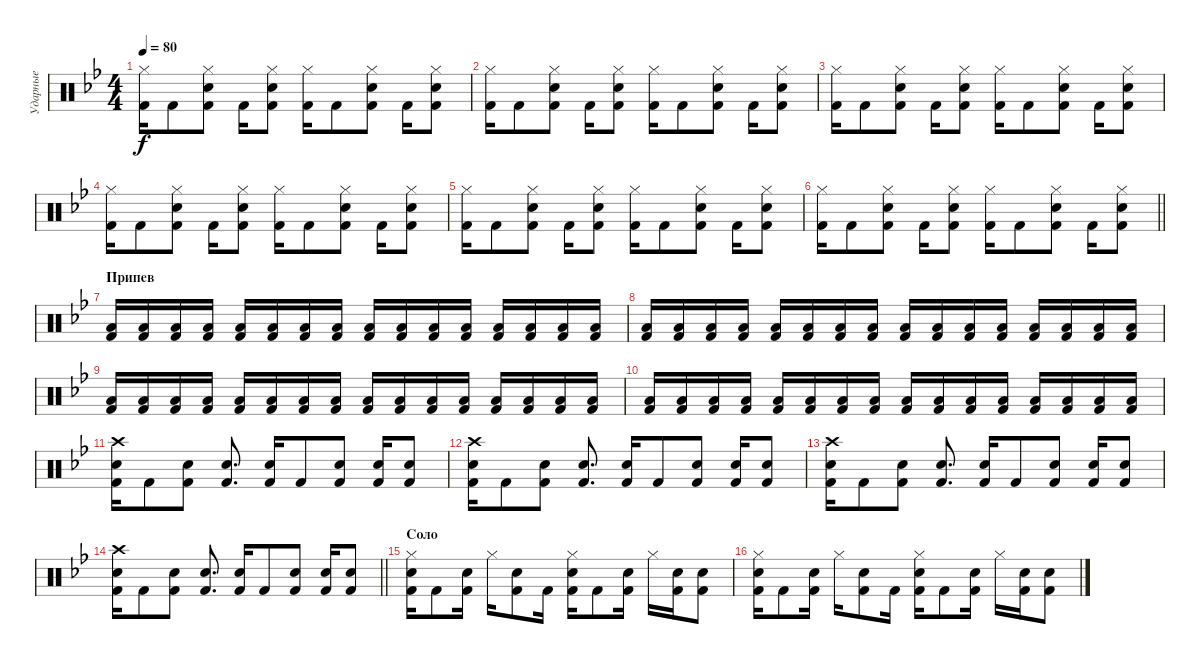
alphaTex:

\track ("Ударные" "Ударные") {instrument percussion}
\staff {score}
\articulation defaults
\ts (4 4)
\tempo 80
\clef neutral
\ks gminor
("Hi-Hat (closed)" "Kick (hit) 2").16{dy f} "Kick (hit) 2".8 ("Hi-Hat (closed)" "Electric Snare (hit)" "Kick (hit) 2").8 "Kick (hit) 2".16 ("Hi-Hat (closed)" "Electric Snare (hit)" "Kick (hit) 2").8 ("Hi-Hat (closed)" "Kick (hit) 2").16 "Kick (hit) 2".8 ("Hi-Hat (closed)" "Electric Snare (hit)" "Kick (hit) 2").8 "Kick (hit) 2".16 ("Hi-Hat (closed)" "Electric Snare (hit)" "Kick (hit) 2").8 |
("Hi-Hat (closed)" "Kick (hit) 2").16 "Kick (hit) 2".8 ("Hi-Hat (closed)" "Electric Snare (hit)" "Kick (hit) 2").8 "Kick (hit) 2".16 ("Hi-Hat (closed)" "Electric Snare (hit)" "Kick (hit) 2").8 ("Hi-Hat (closed)" "Kick (hit) 2").16 "Kick (hit) 2".8 ("Hi-Hat (closed)" "Electric Snare (hit)" "Kick (hit) 2").8 "Kick (hit) 2".16 ("Hi-Hat (closed)" "Electric Snare (hit)" "Kick (hit) 2").8 |
("Hi-Hat (closed)" "Kick (hit) 2").16 "Kick (hit) 2".8 ("Hi-Hat (closed)" "Electric Snare (hit)" "Kick (hit) 2").8 "Kick (hit) 2".16 ("Hi-Hat (closed)" "Electric Snare (hit)" "Kick (hit) 2").8 ("Hi-Hat (closed)" "Kick (hit) 2").16 "Kick (hit) 2".8 ("Hi-Hat (closed)" "Electric Snare (hit)" "Kick (hit) 2").8 "Kick (hit) 2".16 ("Hi-Hat (closed)" "Electric Snare (hit)" "Kick (hit) 2").8 |
("Hi-Hat (closed)" "Kick (hit) 2").16 "Kick (hit) 2".8 ("Hi-Hat (closed)" "Electric Snare (hit)" "Kick (hit) 2").8 "Kick (hit) 2".16 ("Hi-Hat (closed)" "Electric Snare (hit)" "Kick (hit) 2").8 ("Hi-Hat (closed)" "Kick (hit) 2").16 "Kick (hit) 2".8 ("Hi-Hat (closed)" "Electric Snare (hit)" "Kick (hit) 2").8 "Kick (hit) 2".16 ("Hi-Hat (closed)" "Electric Snare (hit)" "Kick (hit) 2").8 |
("Hi-Hat (closed)" "Kick (hit) 2").16 "Kick (hit) 2".8 ("Hi-Hat (closed)" "Electric Snare (hit)" "Kick (hit) 2").8 "Kick (hit) 2".16 ("Hi-Hat (closed)" "Electric Snare (hit)" "Kick (hit) 2").8 ("Hi-Hat (closed)" "Kick (hit) 2").16 "Kick (hit) 2".8 ("Hi-Hat (closed)" "Electric Snare (hit)" "Kick (hit) 2").8 "Kick (hit) 2".16 ("Hi-Hat (closed)" "Electric Snare (hit)" "Kick (hit) 2").8 |
\barLineRight lightlight
("Hi-Hat (closed)" "Kick (hit) 2").16 "Kick (hit) 2".8 ("Hi-Hat (closed)" "Electric Snare (hit)" "Kick (hit) 2").8 "Kick (hit) 2".16 ("Hi-Hat (closed)" "Electric Snare (hit)" "Kick (hit) 2").8 ("Hi-Hat (closed)" "Kick (hit) 2").16 "Kick (hit) 2".8 ("Hi-Hat (closed)" "Electric Snare (hit)" "Kick (hit) 2").8 "Kick (hit) 2".16 ("Hi-Hat (closed)" "Electric Snare (hit)" "Kick (hit) 2").8 |
\section ("" "Припев")
("Low Tom (hit)" "Kick (hit) 2").16{volume 7} ("Low Tom (hit)" "Kick (hit) 2").16 ("Low Tom (hit)" "Kick (hit) 2").16 ("Low Tom (hit)" "Kick (hit) 2").16 ("Low Tom (hit)" "Kick (hit) 2").16{volume 14} ("Low Tom (hit)" "Kick (hit) 2").16 ("Low Tom (hit)" "Kick (hit) 2").16 ("Low Tom (hit)" "Kick (hit) 2").16 ("Low Tom (hit)" "Kick (hit) 2").16 ("Low Tom (hit)" "Kick (hit) 2").16 ("Low Tom (hit)" "Kick (hit) 2").16 ("Low Tom (hit)" "Kick (hit) 2").16 ("Low Tom (hit)" "Kick (hit) 2").16 ("Low Tom (hit)" "Kick (hit) 2").16 ("Low Tom (hit)" "Kick (hit) 2").16 ("Low Tom (hit)" "Kick (hit) 2").16 |
("Low Tom (hit)" "Kick (hit) 2").16 ("Low Tom (hit)" "Kick (hit) 2").16 ("Low Tom (hit)" "Kick (hit) 2").16 ("Low Tom (hit)" "Kick (hit) 2").16 ("Low Tom (hit)" "Kick (hit) 2").16 ("Low Tom (hit)" "Kick (hit) 2").16 ("Low Tom (hit)" "Kick (hit) 2").16 ("Low Tom (hit)" "Kick (hit) 2").16 ("Low Tom (hit)" "Kick (hit) 2").16 ("Low Tom (hit)" "Kick (hit) 2").16 ("Low Tom (hit)" "Kick (hit) 2").16 ("Low Tom (hit)" "Kick (hit) 2").16 ("Low Tom (hit)" "Kick (hit) 2").16 ("Low Tom (hit)" "Kick (hit) 2").16 ("Low Tom (hit)" "Kick (hit) 2").16 ("Low Tom (hit)" "Kick (hit) 2").16 |
("Low Tom (hit)" "Kick (hit) 2").16 ("Low Tom (hit)" "Kick (hit) 2").16 ("Low Tom (hit)" "Kick (hit) 2").16 ("Low Tom (hit)" "Kick (hit) 2").16 ("Low Tom (hit)" "Kick (hit) 2").16 ("Low Tom (hit)" "Kick (hit) 2").16 ("Low Tom (hit)" "Kick (hit) 2").16 ("Low Tom (hit)" "Kick (hit) 2").16 ("Low Tom (hit)" "Kick (hit) 2").16 ("Low Tom (hit)" "Kick (hit) 2").16 ("Low Tom (hit)" "Kick (hit) 2").16 ("Low Tom (hit)" "Kick (hit) 2").16 ("Low Tom (hit)" "Kick (hit) 2").16 ("Low Tom (hit)" "Kick (hit) 2").16 ("Low Tom (hit)" "Kick (hit) 2").16 ("Low Tom (hit)" "Kick (hit) 2").16 |
("Low Tom (hit)" "Kick (hit) 2").16 ("Low Tom (hit)" "Kick (hit) 2").16 ("Low Tom (hit)" "Kick (hit) 2").16 ("Low Tom (hit)" "Kick (hit) 2").16 ("Low Tom (hit)" "Kick (hit) 2").16 ("Low Tom (hit)" "Kick (hit) 2").16 ("Low Tom (hit)" "Kick (hit) 2").16 ("Low Tom (hit)" "Kick (hit) 2").16 ("Low Tom (hit)" "Kick (hit) 2").16 ("Low Tom (hit)" "Kick (hit) 2").16 ("Low Tom (hit)" "Kick (hit) 2").16 ("Low Tom (hit)" "Kick (hit) 2").16 ("Low Tom (hit)" "Kick (hit) 2").16 ("Low Tom (hit)" "Kick (hit) 2").16 ("Low Tom (hit)" "Kick (hit) 2").16 ("Low Tom (hit)" "Kick (hit) 2").16 |
("Crash high (hit)" "Electric Snare (hit)" "Kick (hit) 2").16 "Kick (hit) 2".8 ("Electric Snare (hit)" "Kick (hit) 2").8 ("Electric Snare (hit)" "Kick (hit) 2").8{d} ("Electric Snare (hit)" "Kick (hit) 2").16 "Kick (hit) 2".8 ("Electric Snare (hit)" "Kick (hit) 2").8 ("Electric Snare (hit)" "Kick (hit) 2").16 ("Electric Snare (hit)" "Kick (hit) 2").8 |
("Crash high (hit)" "Electric Snare (hit)" "Kick (hit) 2").16 "Kick (hit) 2".8 ("Electric Snare (hit)" "Kick (hit) 2").8 ("Electric Snare (hit)" "Kick (hit) 2").8{d} ("Electric Snare (hit)" "Kick (hit) 2").16 "Kick (hit) 2".8 ("Electric Snare (hit)" "Kick (hit) 2").8 ("Electric Snare (hit)" "Kick (hit) 2").16 ("Electric Snare (hit)" "Kick (hit) 2").8 |
("Crash high (hit)" "Electric Snare (hit)" "Kick (hit) 2").16 "Kick (hit) 2".8 ("Electric Snare (hit)" "Kick (hit) 2").8 ("Electric Snare (hit)" "Kick (hit) 2").8{d} ("Electric Snare (hit)" "Kick (hit) 2").16 "Kick (hit) 2".8 ("Electric Snare (hit)" "Kick (hit) 2").8 ("Electric Snare (hit)" "Kick (hit) 2").16 ("Electric Snare (hit)" "Kick (hit) 2").8 |
\barLineRight lightlight
("Crash high (hit)" "Electric Snare (hit)" "Kick (hit) 2").16 "Kick (hit) 2".8 ("Electric Snare (hit)" "Kick (hit) 2").8 ("Electric Snare (hit)" "Kick (hit) 2").8{d} ("Electric Snare (hit)" "Kick (hit) 2").16 "Kick (hit) 2".8 ("Electric Snare (hit)" "Kick (hit) 2").8 ("Electric Snare (hit)" "Kick (hit) 2").16 ("Electric Snare (hit)" "Kick (hit) 2").8 |
\section ("" "Соло")
("Hi-Hat (closed)" "Electric Snare (hit)" "Kick (hit) 2").16 "Kick (hit) 2".8 ("Electric Snare (hit)" "Kick (hit) 2").16 "Hi-Hat (closed)".16 ("Electric Snare (hit)" "Kick (hit) 2").8 "Kick (hit) 2".16 ("Hi-Hat (closed)" "Electric Snare (hit)" "Kick (hit) 2").16 "Kick (hit) 2".8 ("Electric Snare (hit)" "Kick (hit) 2").16 "Hi-Hat (closed)".16 ("Electric Snare (hit)" "Kick (hit) 2").16 ("Electric Snare (hit)" "Kick (hit) 2").8 |
("Hi-Hat (closed)" "Electric Snare (hit)" "Kick (hit) 2").16 "Kick (hit) 2".8 ("Electric Snare (hit)" "Kick (hit) 2").16 "Hi-Hat (closed)".16 ("Electric Snare (hit)" "Kick (hit) 2").8 "Kick (hit) 2".16 ("Hi-Hat (closed)" "Electric Snare (hit)" "Kick (hit) 2").16 "Kick (hit) 2".8 ("Electric Snare (hit)" "Kick (hit) 2").16 "Hi-Hat (closed)".16 ("Electric Snare (hit)" "Kick (hit) 2").16 ("Electric Snare (hit)" "Kick (hit) 2").8
